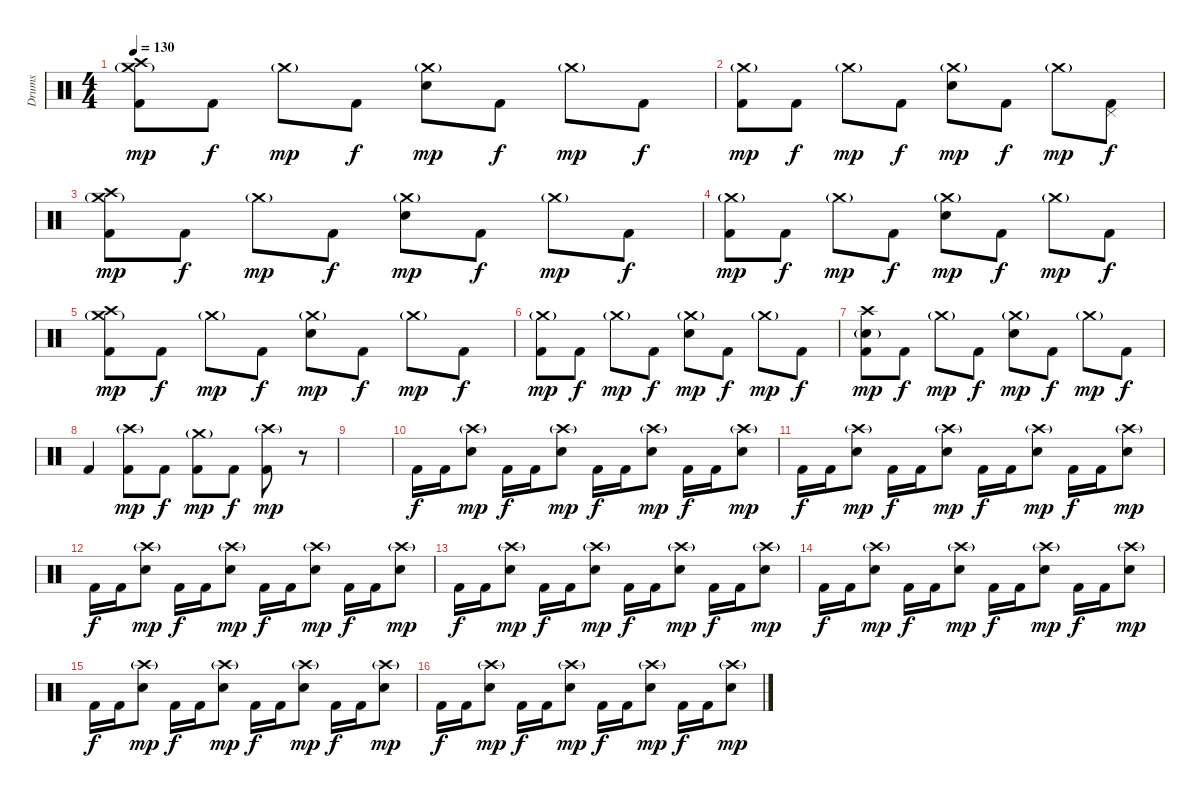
\track ("Drums" "Drums") {instrument percussion}
\staff {score}
\articulation defaults
\ts (4 4)
\tempo 130
\clef neutral
\ks c
("Crash high (hit)" "Crash medium (hit)"{g} "Kick (hit) 2").8{dy mp} "Kick (hit) 2".8{dy f} "Crash medium (hit)"{g}.8{dy mp} "Kick (hit) 2".8{dy f} ("Crash medium (hit)"{g} "Electric Snare (hit)").8{dy mp} "Kick (hit) 2".8{dy f} "Crash medium (hit)"{g}.8{dy mp} "Kick (hit) 2".8{dy f} |
("Crash medium (hit)"{g} "Kick (hit) 2").8{dy mp} "Kick (hit) 2".8{dy f} "Crash medium (hit)"{g}.8{dy mp} "Kick (hit) 2".8{dy f} ("Crash medium (hit)"{g} "Electric Snare (hit)").8{dy mp} "Kick (hit) 2".8{dy f} "Crash medium (hit)"{g}.8{dy mp} ("Pedal Hi-Hat (hit)" "Kick (hit) 2").8{dy f} |
("Crash high (hit)" "Crash medium (hit)"{g} "Kick (hit) 2").8{dy mp} "Kick (hit) 2".8{dy f} "Crash medium (hit)"{g}.8{dy mp} "Kick (hit) 2".8{dy f} ("Crash medium (hit)"{g} "Electric Snare (hit)").8{dy mp} "Kick (hit) 2".8{dy f} "Crash medium (hit)"{g}.8{dy mp} "Kick (hit) 2".8{dy f} |
("Crash medium (hit)"{g} "Kick (hit) 2").8{dy mp} "Kick (hit) 2".8{dy f} "Crash medium (hit)"{g}.8{dy mp} "Kick (hit) 2".8{dy f} ("Crash medium (hit)"{g} "Electric Snare (hit)").8{dy mp} "Kick (hit) 2".8{dy f} "Crash medium (hit)"{g}.8{dy mp} "Kick (hit) 2".8{dy f} |
("Crash high (hit)" "Crash medium (hit)"{g} "Kick (hit) 2").8{dy mp} "Kick (hit) 2".8{dy f} "Crash medium (hit)"{g}.8{dy mp} "Kick (hit) 2".8{dy f} ("Crash medium (hit)"{g} "Electric Snare (hit)").8{dy mp} "Kick (hit) 2".8{dy f} "Crash medium (hit)"{g}.8{dy mp} "Kick (hit) 2".8{dy f} |
("Crash medium (hit)"{g} "Kick (hit) 2").8{dy mp} "Kick (hit) 2".8{dy f} "Crash medium (hit)"{g}.8{dy mp} "Kick (hit) 2".8{dy f} ("Crash medium (hit)"{g} "Electric Snare (hit)").8{dy mp} "Kick (hit) 2".8{dy f} "Crash medium (hit)"{g}.8{dy mp} "Kick (hit) 2".8{dy f} |
("Crash high (hit)" "Electric Snare (hit)"{g} "Kick (hit) 2").8{dy mp} "Kick (hit) 2".8{dy f} "Crash medium (hit)"{g}.8{dy mp} "Kick (hit) 2".8{dy f} ("Crash medium (hit)"{g} "Electric Snare (hit)").8{dy mp} "Kick (hit) 2".8{dy f} "Crash medium (hit)"{g}.8{dy mp} "Kick (hit) 2".8{dy f} |
"Kick (hit) 2".4 ("Crash high (hit)"{g} "Kick (hit) 2").8{dy mp} "Kick (hit) 2".8{dy f} ("Crash medium (hit)"{g} "Kick (hit) 2").8{dy mp} "Kick (hit) 2".8{dy f} ("Crash high (hit)"{g} "Kick (hit) 2").8{dy mp} r.8 |
|
"Kick (hit) 2".16{dy f} "Kick (hit) 2".16 ("Crash high (hit)"{g} "Electric Snare (hit)").8{dy mp} "Kick (hit) 2".16{dy f} "Kick (hit) 2".16 ("Crash high (hit)"{g} "Electric Snare (hit)").8{dy mp} "Kick (hit) 2".16{dy f} "Kick (hit) 2".16 ("Crash high (hit)"{g} "Electric Snare (hit)").8{dy mp} "Kick (hit) 2".16{dy f} "Kick (hit) 2".16 ("Crash high (hit)"{g} "Electric Snare (hit)").8{dy mp} |
"Kick (hit) 2".16{dy f} "Kick (hit) 2".16 ("Crash high (hit)"{g} "Electric Snare (hit)").8{dy mp} "Kick (hit) 2".16{dy f} "Kick (hit) 2".16 ("Crash high (hit)"{g} "Electric Snare (hit)").8{dy mp} "Kick (hit) 2".16{dy f} "Kick (hit) 2".16 ("Crash high (hit)"{g} "Electric Snare (hit)").8{dy mp} "Kick (hit) 2".16{dy f} "Kick (hit) 2".16 ("Crash high (hit)"{g} "Electric Snare (hit)").8{dy mp} |
"Kick (hit) 2".16{dy f} "Kick (hit) 2".16 ("Crash high (hit)"{g} "Electric Snare (hit)").8{dy mp} "Kick (hit) 2".16{dy f} "Kick (hit) 2".16 ("Crash high (hit)"{g} "Electric Snare (hit)").8{dy mp} "Kick (hit) 2".16{dy f} "Kick (hit) 2".16 ("Crash high (hit)"{g} "Electric Snare (hit)").8{dy mp} "Kick (hit) 2".16{dy f} "Kick (hit) 2".16 ("Crash high (hit)"{g} "Electric Snare (hit)").8{dy mp} |
"Kick (hit) 2".16{dy f} "Kick (hit) 2".16 ("Crash high (hit)"{g} "Electric Snare (hit)").8{dy mp} "Kick (hit) 2".16{dy f} "Kick (hit) 2".16 ("Crash high (hit)"{g} "Electric Snare (hit)").8{dy mp} "Kick (hit) 2".16{dy f} "Kick (hit) 2".16 ("Crash high (hit)"{g} "Electric Snare (hit)").8{dy mp} "Kick (hit) 2".16{dy f} "Kick (hit) 2".16 ("Crash high (hit)"{g} "Electric Snare (hit)").8{dy mp} |
"Kick (hit) 2".16{dy f} "Kick (hit) 2".16 ("Crash high (hit)"{g} "Electric Snare (hit)").8{dy mp} "Kick (hit) 2".16{dy f} "Kick (hit) 2".16 ("Crash high (hit)"{g} "Electric Snare (hit)").8{dy mp} "Kick (hit) 2".16{dy f} "Kick (hit) 2".16 ("Crash high (hit)"{g} "Electric Snare (hit)").8{dy mp} "Kick (hit) 2".16{dy f} "Kick (hit) 2".16 ("Crash high (hit)"{g} "Electric Snare (hit)").8{dy mp} |
"Kick (hit) 2".16{dy f} "Kick (hit) 2".16 ("Crash high (hit)"{g} "Electric Snare (hit)").8{dy mp} "Kick (hit) 2".16{dy f} "Kick (hit) 2".16 ("Crash high (hit)"{g} "Electric Snare (hit)").8{dy mp} "Kick (hit) 2".16{dy f} "Kick (hit) 2".16 ("Crash high (hit)"{g} "Electric Snare (hit)").8{dy mp} "Kick (hit) 2".16{dy f} "Kick (hit) 2".16 ("Crash high (hit)"{g} "Electric Snare (hit)").8{dy mp} |
"Kick (hit) 2".16{dy f} "Kick (hit) 2".16 ("Crash high (hit)"{g} "Electric Snare (hit)").8{dy mp} "Kick (hit) 2".16{dy f} "Kick (hit) 2".16 ("Crash high (hit)"{g} "Electric Snare (hit)").8{dy mp} "Kick (hit) 2".16{dy f} "Kick (hit) 2".16 ("Crash high (hit)"{g} "Electric Snare (hit)").8{dy mp} "Kick (hit) 2".16{dy f} "Kick (hit) 2".16 ("Crash high (hit)"{g} "Electric Snare (hit)").8{dy mp}
